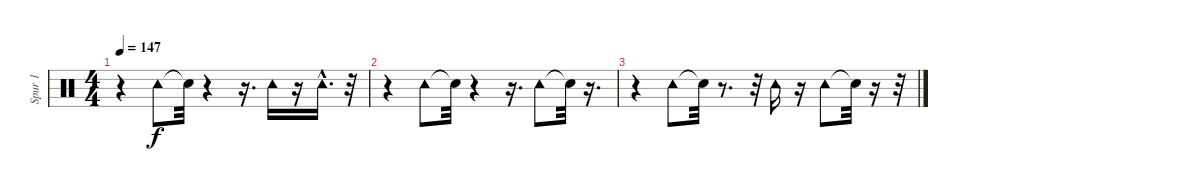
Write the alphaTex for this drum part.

\track ("Spur 1" "Spur 1") {instrument percussion}
\staff {score}
\articulation defaults
\ts (4 4)
\tempo 147
\clef neutral
\ks c
r.4{dy f} "Tambourine (hit)".8{volume 2} "Snare (hit)"{t}.32 r.4 r.16{d} "Tambourine (hit)".16{volume 1} r.16 "Tambourine (hit)"{hac}.16{d volume 1} r.32 |
r.4 "Tambourine (hit)".8{volume 1} "Snare (hit)"{t}.32 r.4 r.16{d} "Tambourine (hit)".8{volume 0} "Snare (hit)"{t}.32 r.16{d} |
r.4 "Tambourine (hit)".8{volume 0} "Snare (hit)"{t}.32 r.8{d} r.32 "Tambourine (hit)".16 r.16 "Tambourine (hit)".8 "Snare (hit)"{t}.32 r.16 r.32
